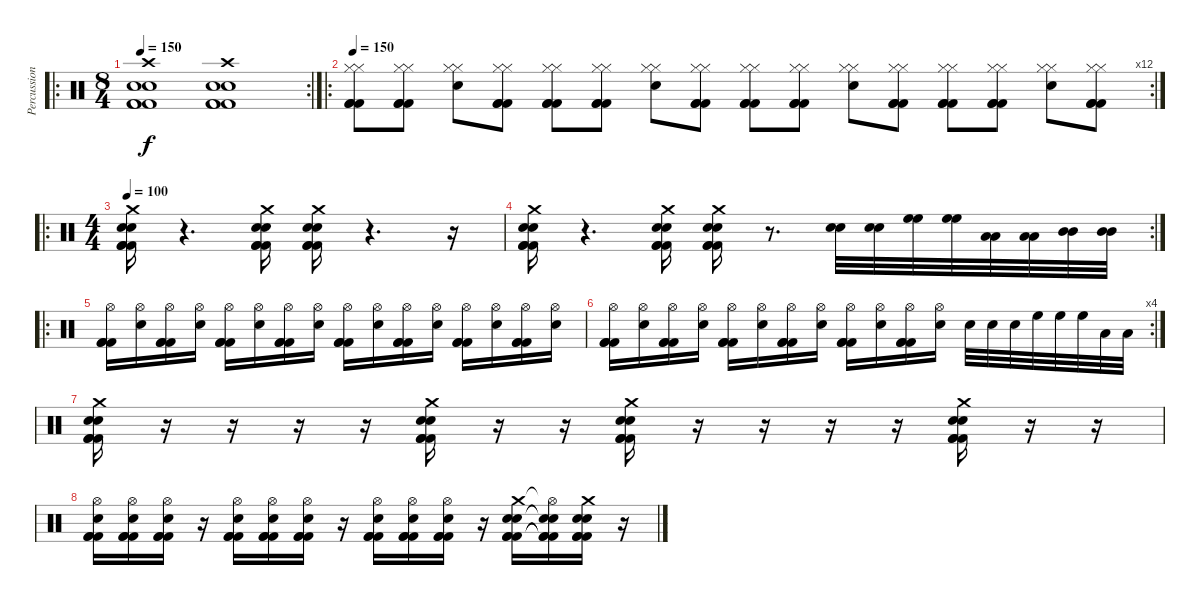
\track ("Percussion" "Percussion") {instrument percussion}
\staff {score}
\articulation defaults
\ro
\rc 2
\ts (8 4)
\tempo 150
\clef neutral
\ks c
("Crash high (hit)" "Snare (hit) 2" "Snare (hit) 2" "Kick (hit) 2" "Kick (hit) 2" "Kick (hit) 2").1{dy f} ("Crash high (hit)" "Snare (hit) 2" "Snare (hit) 2" "Kick (hit) 2" "Kick (hit) 2" "Kick (hit) 2").1 |
\ro
\rc 12
\tempo 150
("Hi-Hat (closed)" "Kick (hit) 2" "Kick (hit) 2" "Kick (hit) 2" "Hi-Hat (closed)").8 ("Hi-Hat (closed)" "Kick (hit) 2" "Kick (hit) 2" "Kick (hit) 2" "Hi-Hat (closed)").8 ("Hi-Hat (closed)" "Snare (hit) 2" "Hi-Hat (closed)").8 ("Hi-Hat (closed)" "Kick (hit) 2" "Kick (hit) 2" "Kick (hit) 2" "Hi-Hat (closed)").8 ("Hi-Hat (closed)" "Kick (hit) 2" "Kick (hit) 2" "Kick (hit) 2" "Hi-Hat (closed)").8 ("Hi-Hat (closed)" "Kick (hit) 2" "Kick (hit) 2" "Kick (hit) 2" "Hi-Hat (closed)").8 ("Hi-Hat (closed)" "Snare (hit) 2" "Hi-Hat (closed)").8 ("Hi-Hat (closed)" "Kick (hit) 2" "Kick (hit) 2" "Kick (hit) 2" "Hi-Hat (closed)").8 ("Hi-Hat (closed)" "Kick (hit) 2" "Kick (hit) 2" "Kick (hit) 2" "Hi-Hat (closed)").8 ("Hi-Hat (closed)" "Kick (hit) 2" "Kick (hit) 2" "Kick (hit) 2" "Hi-Hat (closed)").8 ("Hi-Hat (closed)" "Snare (hit) 2" "Hi-Hat (closed)").8 ("Hi-Hat (closed)" "Kick (hit) 2" "Kick (hit) 2" "Kick (hit) 2" "Hi-Hat (closed)").8 ("Hi-Hat (closed)" "Kick (hit) 2" "Kick (hit) 2" "Kick (hit) 2" "Hi-Hat (closed)").8 ("Hi-Hat (closed)" "Kick (hit) 2" "Kick (hit) 2" "Kick (hit) 2" "Hi-Hat (closed)").8 ("Hi-Hat (closed)" "Snare (hit) 2" "Hi-Hat (closed)").8 ("Hi-Hat (closed)" "Kick (hit) 2" "Kick (hit) 2" "Kick (hit) 2" "Hi-Hat (closed)").8 |
\ro
\ts (4 4)
\tempo 100
("Crash medium (hit)" "Snare (hit) 2" "Snare (hit) 2" "Kick (hit) 2" "Kick (hit) 2" "Kick (hit) 2").16 r.4{d} ("Crash medium (hit)" "Snare (hit) 2" "Snare (hit) 2" "Kick (hit) 2" "Kick (hit) 2" "Kick (hit) 2").16 ("Crash medium (hit)" "Snare (hit) 2" "Snare (hit) 2" "Kick (hit) 2" "Kick (hit) 2" "Kick (hit) 2").16 r.4{d} r.16 |
\rc 2
("Crash medium (hit)" "Snare (hit) 2" "Snare (hit) 2" "Kick (hit) 2" "Kick (hit) 2" "Kick (hit) 2").16 r.4{d} ("Crash medium (hit)" "Snare (hit) 2" "Snare (hit) 2" "Kick (hit) 2" "Kick (hit) 2" "Kick (hit) 2").16 ("Crash medium (hit)" "Snare (hit) 2" "Snare (hit) 2" "Kick (hit) 2" "Kick (hit) 2" "Kick (hit) 2").16 r.8{d} ("Snare (hit) 2" "Snare (hit) 2").32 ("Snare (hit) 2" "Snare (hit) 2").32 ("High Floor Tom (hit)" "High Floor Tom (hit)").32 ("High Floor Tom (hit)" "High Floor Tom (hit)").32 ("Low Tom (hit)" "Low Tom (hit)").32 ("Low Tom (hit)" "Low Tom (hit)").32 ("Mid Tom (hit)" "Mid Tom (hit)").32 ("Mid Tom (hit)" "Mid Tom (hit)").32 |
\ro
("Hi-Hat (open)" "Kick (hit) 2" "Kick (hit) 2" "Kick (hit) 2").16 ("Hi-Hat (open)" "Snare (hit) 2").16 ("Hi-Hat (open)" "Kick (hit) 2" "Kick (hit) 2" "Kick (hit) 2").16 ("Hi-Hat (open)" "Snare (hit) 2").16 ("Hi-Hat (open)" "Kick (hit) 2" "Kick (hit) 2" "Kick (hit) 2").16 ("Hi-Hat (open)" "Snare (hit) 2").16 ("Hi-Hat (open)" "Kick (hit) 2" "Kick (hit) 2" "Kick (hit) 2").16 ("Hi-Hat (open)" "Snare (hit) 2").16 ("Hi-Hat (open)" "Kick (hit) 2" "Kick (hit) 2" "Kick (hit) 2").16 ("Hi-Hat (open)" "Snare (hit) 2").16 ("Hi-Hat (open)" "Kick (hit) 2" "Kick (hit) 2" "Kick (hit) 2").16 ("Hi-Hat (open)" "Snare (hit) 2").16 ("Hi-Hat (open)" "Kick (hit) 2" "Kick (hit) 2" "Kick (hit) 2").16 ("Hi-Hat (open)" "Snare (hit) 2").16 ("Hi-Hat (open)" "Kick (hit) 2" "Kick (hit) 2" "Kick (hit) 2").16 ("Hi-Hat (open)" "Snare (hit) 2").16 |
\rc 4
("Hi-Hat (open)" "Kick (hit) 2" "Kick (hit) 2" "Kick (hit) 2").16 ("Hi-Hat (open)" "Snare (hit) 2").16 ("Hi-Hat (open)" "Kick (hit) 2" "Kick (hit) 2" "Kick (hit) 2").16 ("Hi-Hat (open)" "Snare (hit) 2").16 ("Hi-Hat (open)" "Kick (hit) 2" "Kick (hit) 2" "Kick (hit) 2").16 ("Hi-Hat (open)" "Snare (hit) 2").16 ("Hi-Hat (open)" "Kick (hit) 2" "Kick (hit) 2" "Kick (hit) 2").16 ("Hi-Hat (open)" "Snare (hit) 2").16 ("Hi-Hat (open)" "Kick (hit) 2" "Kick (hit) 2" "Kick (hit) 2").16 ("Hi-Hat (open)" "Snare (hit) 2").16 ("Hi-Hat (open)" "Kick (hit) 2" "Kick (hit) 2" "Kick (hit) 2").16 ("Hi-Hat (open)" "Snare (hit) 2").16 "Snare (hit) 2".32 "Snare (hit) 2".32 "Snare (hit) 2".32 "High Floor Tom (hit)".32 "High Floor Tom (hit)".32 "High Floor Tom (hit)".32 "Low Tom (hit)".32 "Low Tom (hit)".32 |
("Crash medium (hit)" "Snare (hit) 2" "Snare (hit) 2" "Kick (hit) 2" "Kick (hit) 2" "Kick (hit) 2").16 r.16 r.16 r.16 r.16 ("Crash medium (hit)" "Snare (hit) 2" "Snare (hit) 2" "Kick (hit) 2" "Kick (hit) 2" "Kick (hit) 2").16 r.16 r.16 ("Crash medium (hit)" "Snare (hit) 2" "Snare (hit) 2" "Kick (hit) 2" "Kick (hit) 2" "Kick (hit) 2").16 r.16 r.16 r.16 r.16 ("Crash medium (hit)" "Snare (hit) 2" "Snare (hit) 2" "Kick (hit) 2" "Kick (hit) 2" "Kick (hit) 2").16 r.16 r.16 |
("Hi-Hat (open)" "Snare (hit) 2" "Kick (hit) 2" "Kick (hit) 2" "Kick (hit) 2").16 ("Hi-Hat (open)" "Snare (hit) 2" "Kick (hit) 2" "Kick (hit) 2" "Kick (hit) 2").16 ("Hi-Hat (open)" "Snare (hit) 2" "Kick (hit) 2" "Kick (hit) 2" "Kick (hit) 2").16 r.16 ("Hi-Hat (open)" "Snare (hit) 2" "Kick (hit) 2" "Kick (hit) 2" "Kick (hit) 2").16 ("Hi-Hat (open)" "Snare (hit) 2" "Kick (hit) 2" "Kick (hit) 2" "Kick (hit) 2").16 ("Hi-Hat (open)" "Snare (hit) 2" "Kick (hit) 2" "Kick (hit) 2" "Kick (hit) 2").16 r.16 ("Hi-Hat (open)" "Snare (hit) 2" "Kick (hit) 2" "Kick (hit) 2" "Kick (hit) 2").16 ("Hi-Hat (open)" "Snare (hit) 2" "Kick (hit) 2" "Kick (hit) 2" "Kick (hit) 2").16 ("Hi-Hat (open)" "Snare (hit) 2" "Kick (hit) 2" "Kick (hit) 2" "Kick (hit) 2").16 r.16 ("Crash medium (hit)" "Snare (hit) 2" "Kick (hit) 2" "Kick (hit) 2" "Kick (hit) 2" "Snare (hit) 2").16 ("Hi-Hat (open)"{t} "Snare (hit) 2"{t} "Kick (hit) 2"{t} "Kick (hit) 2"{t} "Kick (hit) 2"{t} "Snare (hit)"{t}).16 ("Crash medium (hit)" "Snare (hit) 2" "Kick (hit) 2" "Kick (hit) 2" "Kick (hit) 2" "Snare (hit) 2").16 r.16
